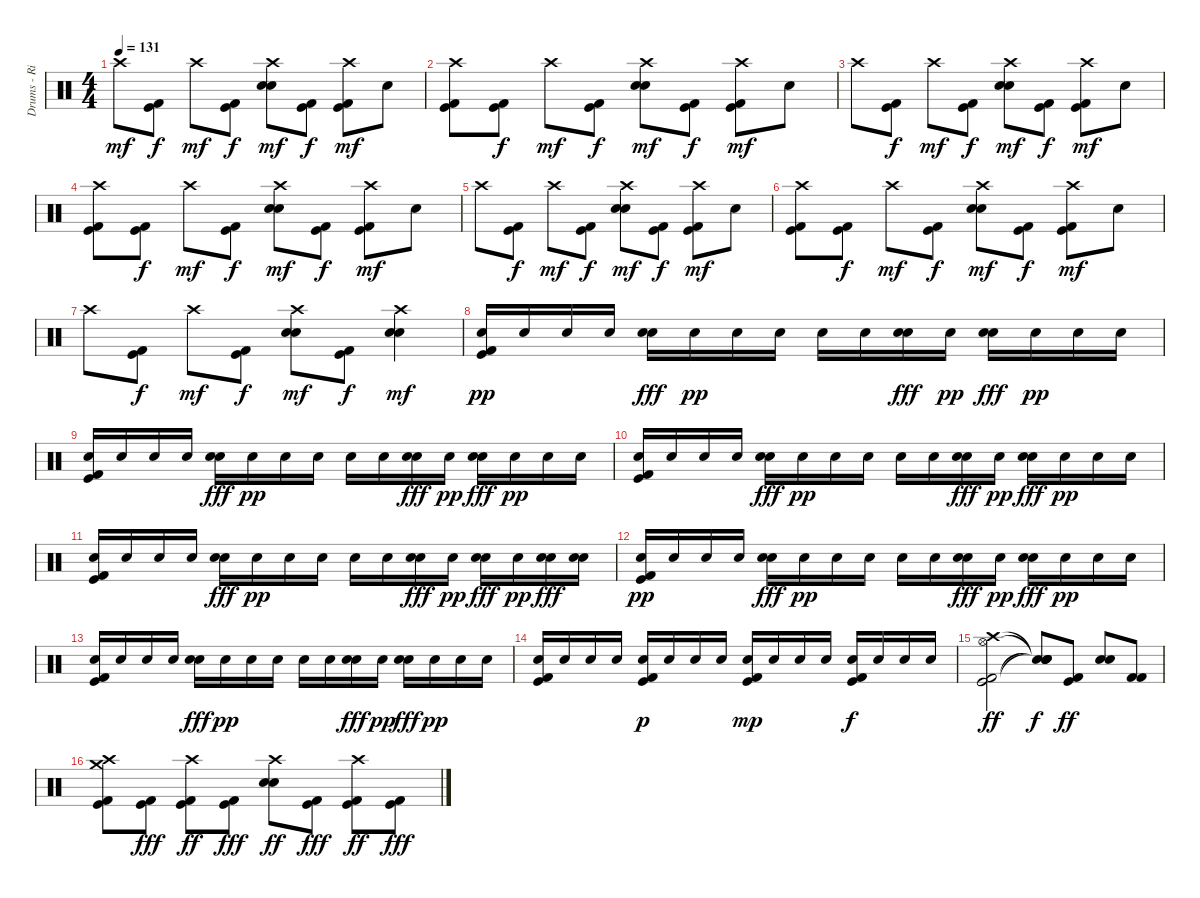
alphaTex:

\track ("Drums - Rian" "Drums - Ri") {instrument percussion}
\staff
\articulation defaults
\ts (4 4)
\tempo 131
\clef neutral
\ks c "Crash high (hit)".8{dy mf}
("Kick (hit) 2" "Kick (hit)").8{dy f} "Crash high (hit)".8{dy mf} ("Kick (hit) 2" "Kick (hit)").8{dy f} ("Electric Snare (hit)" "Electric Snare (hit)" "Crash high (hit)").8{dy mf} ("Kick (hit) 2" "Kick (hit)").8{dy f} ("Kick (hit) 2" "Kick (hit)" "Crash high (hit)").8{dy mf} "Electric Snare (hit)".8 |
("Kick (hit) 2" "Kick (hit)" "Crash high (hit)").8 ("Kick (hit) 2" "Kick (hit)").8{dy f} "Crash high (hit)".8{dy mf} ("Kick (hit) 2" "Kick (hit)").8{dy f} ("Electric Snare (hit)" "Electric Snare (hit)" "Crash high (hit)").8{dy mf} ("Kick (hit) 2" "Kick (hit)").8{dy f} ("Kick (hit) 2" "Kick (hit)" "Crash high (hit)").8{dy mf} "Electric Snare (hit)".8 |
"Crash high (hit)".8 ("Kick (hit) 2" "Kick (hit)").8{dy f} "Crash high (hit)".8{dy mf} ("Kick (hit) 2" "Kick (hit)").8{dy f} ("Electric Snare (hit)" "Electric Snare (hit)" "Crash high (hit)").8{dy mf} ("Kick (hit) 2" "Kick (hit)").8{dy f} ("Kick (hit) 2" "Kick (hit)" "Crash high (hit)").8{dy mf} "Electric Snare (hit)".8 |
("Kick (hit) 2" "Kick (hit)" "Crash high (hit)").8 ("Kick (hit) 2" "Kick (hit)").8{dy f} "Crash high (hit)".8{dy mf} ("Kick (hit) 2" "Kick (hit)").8{dy f} ("Electric Snare (hit)" "Electric Snare (hit)" "Crash high (hit)").8{dy mf} ("Kick (hit) 2" "Kick (hit)").8{dy f} ("Kick (hit) 2" "Kick (hit)" "Crash high (hit)").8{dy mf} "Electric Snare (hit)".8 |
"Crash high (hit)".8 ("Kick (hit) 2" "Kick (hit)").8{dy f} "Crash high (hit)".8{dy mf} ("Kick (hit) 2" "Kick (hit)").8{dy f} ("Electric Snare (hit)" "Electric Snare (hit)" "Crash high (hit)").8{dy mf} ("Kick (hit) 2" "Kick (hit)").8{dy f} ("Kick (hit) 2" "Kick (hit)" "Crash high (hit)").8{dy mf} "Electric Snare (hit)".8 |
("Kick (hit) 2" "Kick (hit)" "Crash high (hit)").8 ("Kick (hit) 2" "Kick (hit)").8{dy f} "Crash high (hit)".8{dy mf} ("Kick (hit) 2" "Kick (hit)").8{dy f} ("Electric Snare (hit)" "Electric Snare (hit)" "Crash high (hit)").8{dy mf} ("Kick (hit) 2" "Kick (hit)").8{dy f} ("Kick (hit) 2" "Kick (hit)" "Crash high (hit)").8{dy mf} "Electric Snare (hit)".8 |
"Crash high (hit)".8 ("Kick (hit) 2" "Kick (hit)").8{dy f} "Crash high (hit)".8{dy mf} ("Kick (hit) 2" "Kick (hit)").8{dy f} ("Electric Snare (hit)" "Electric Snare (hit)" "Crash high (hit)").8{dy mf} ("Kick (hit) 2" "Kick (hit)").8{dy f} ("Electric Snare (hit)" "Electric Snare (hit)" "Crash high (hit)").4{dy mf} |
("Kick (hit) 2" "Kick (hit)" "Electric Snare (hit)").16{dy pp} "Electric Snare (hit)".16 "Electric Snare (hit)".16 "Electric Snare (hit)".16 ("Electric Snare (hit)" "Electric Snare (hit)").16{dy fff} "Electric Snare (hit)".16{dy pp} "Electric Snare (hit)".16 "Electric Snare (hit)".16 "Electric Snare (hit)".16 "Electric Snare (hit)".16 ("Electric Snare (hit)" "Electric Snare (hit)").16{dy fff} "Electric Snare (hit)".16{dy pp} ("Electric Snare (hit)" "Electric Snare (hit)").16{dy fff} "Electric Snare (hit)".16{dy pp} "Electric Snare (hit)".16 "Electric Snare (hit)".16 |
("Kick (hit) 2" "Kick (hit)" "Electric Snare (hit)").16 "Electric Snare (hit)".16 "Electric Snare (hit)".16 "Electric Snare (hit)".16 ("Electric Snare (hit)" "Electric Snare (hit)").16{dy fff} "Electric Snare (hit)".16{dy pp} "Electric Snare (hit)".16 "Electric Snare (hit)".16 "Electric Snare (hit)".16 "Electric Snare (hit)".16 ("Electric Snare (hit)" "Electric Snare (hit)").16{dy fff} "Electric Snare (hit)".16{dy pp} ("Electric Snare (hit)" "Electric Snare (hit)").16{dy fff} "Electric Snare (hit)".16{dy pp} "Electric Snare (hit)".16 "Electric Snare (hit)".16 |
("Kick (hit) 2" "Kick (hit)" "Electric Snare (hit)").16 "Electric Snare (hit)".16 "Electric Snare (hit)".16 "Electric Snare (hit)".16 ("Electric Snare (hit)" "Electric Snare (hit)").16{dy fff} "Electric Snare (hit)".16{dy pp} "Electric Snare (hit)".16 "Electric Snare (hit)".16 "Electric Snare (hit)".16 "Electric Snare (hit)".16 ("Electric Snare (hit)" "Electric Snare (hit)").16{dy fff} "Electric Snare (hit)".16{dy pp} ("Electric Snare (hit)" "Electric Snare (hit)").16{dy fff} "Electric Snare (hit)".16{dy pp} "Electric Snare (hit)".16 "Electric Snare (hit)".16 |
("Kick (hit) 2" "Kick (hit)" "Electric Snare (hit)").16 "Electric Snare (hit)".16 "Electric Snare (hit)".16 "Electric Snare (hit)".16 ("Electric Snare (hit)" "Electric Snare (hit)").16{dy fff} "Electric Snare (hit)".16{dy pp} "Electric Snare (hit)".16 "Electric Snare (hit)".16 "Electric Snare (hit)".16 "Electric Snare (hit)".16 ("Electric Snare (hit)" "Electric Snare (hit)").16{dy fff} "Electric Snare (hit)".16{dy pp} ("Electric Snare (hit)" "Electric Snare (hit)").16{dy fff} "Electric Snare (hit)".16{dy pp} ("Electric Snare (hit)" "Electric Snare (hit)").16{dy fff} ("Electric Snare (hit)" "Electric Snare (hit)").16 |
("Kick (hit) 2" "Kick (hit)" "Electric Snare (hit)").16{dy pp} "Electric Snare (hit)".16 "Electric Snare (hit)".16 "Electric Snare (hit)".16 ("Electric Snare (hit)" "Electric Snare (hit)").16{dy fff} "Electric Snare (hit)".16{dy pp} "Electric Snare (hit)".16 "Electric Snare (hit)".16 "Electric Snare (hit)".16 "Electric Snare (hit)".16 ("Electric Snare (hit)" "Electric Snare (hit)").16{dy fff} "Electric Snare (hit)".16{dy pp} ("Electric Snare (hit)" "Electric Snare (hit)").16{dy fff} "Electric Snare (hit)".16{dy pp} "Electric Snare (hit)".16 "Electric Snare (hit)".16 |
("Kick (hit) 2" "Kick (hit)" "Electric Snare (hit)").16 "Electric Snare (hit)".16 "Electric Snare (hit)".16 "Electric Snare (hit)".16 ("Electric Snare (hit)" "Electric Snare (hit)").16{dy fff} "Electric Snare (hit)".16{dy pp} "Electric Snare (hit)".16 "Electric Snare (hit)".16 "Electric Snare (hit)".16 "Electric Snare (hit)".16 ("Electric Snare (hit)" "Electric Snare (hit)").16{dy fff} "Electric Snare (hit)".16{dy pp} ("Electric Snare (hit)" "Electric Snare (hit)").16{dy fff} "Electric Snare (hit)".16{dy pp} "Electric Snare (hit)".16 "Electric Snare (hit)".16 |
("Kick (hit) 2" "Kick (hit)" "Electric Snare (hit)").16 "Electric Snare (hit)".16 "Electric Snare (hit)".16 "Electric Snare (hit)".16 ("Kick (hit) 2" "Kick (hit)" "Electric Snare (hit)").16{dy p} "Electric Snare (hit)".16 "Electric Snare (hit)".16 "Electric Snare (hit)".16 ("Kick (hit) 2" "Kick (hit)" "Electric Snare (hit)").16{dy mp} "Electric Snare (hit)".16 "Electric Snare (hit)".16 "Electric Snare (hit)".16 ("Kick (hit) 2" "Kick (hit)" "Electric Snare (hit)").16{dy f} "Electric Snare (hit)".16 "Electric Snare (hit)".16 "Electric Snare (hit)".16 |
("Kick (hit) 2" "Kick (hit)" "Hi-Hat (open)" "Crash high (hit)").2{dy ff} ("Snare (hit)"{t} "Snare (hit)"{t} "Snare (hit)"{t} "Snare (hit)"{t}).8{dy f} ("Kick (hit) 2" "Kick (hit)").8{dy ff} ("Electric Snare (hit)" "Electric Snare (hit)").8 ("Kick (hit) 2" "Kick (hit) 2").8 |
("Kick (hit) 2" "Kick (hit)" "Crash high (hit)" "Crash medium (hit)").8 ("Kick (hit) 2" "Kick (hit)").8{dy fff} ("Kick (hit) 2" "Kick (hit)" "Crash high (hit)").8{dy ff} ("Kick (hit) 2" "Kick (hit)").8{dy fff} ("Electric Snare (hit)" "Electric Snare (hit)" "Crash high (hit)").8{dy ff} ("Kick (hit) 2" "Kick (hit)").8{dy fff} ("Kick (hit) 2" "Kick (hit)" "Crash high (hit)").8{dy ff} ("Kick (hit) 2" "Kick (hit)").8{dy fff}
